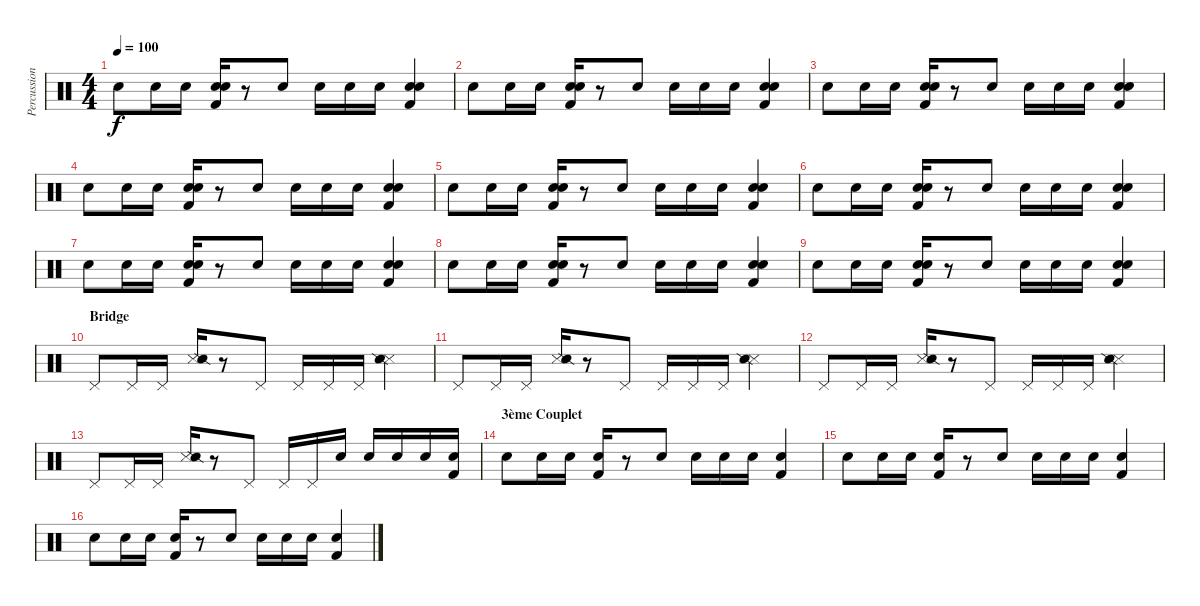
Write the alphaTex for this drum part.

\track ("Percussions" "Percussion") {instrument percussion}
\staff {score}
\articulation defaults
\ts (4 4)
\tempo 100
\clef neutral
\ks c "Electric Snare (hit)".8{dy f} "Electric Snare (hit)".16 "Electric Snare (hit)".16
("Snare (hit) 2" "Kick (hit) 2" "Electric Snare (hit)").16 r.8 "Electric Snare (hit)".8 "Electric Snare (hit)".16 "Electric Snare (hit)".16 "Electric Snare (hit)".16 ("Snare (hit) 2" "Kick (hit) 2" "Electric Snare (hit)").4 |
"Electric Snare (hit)".8 "Electric Snare (hit)".16 "Electric Snare (hit)".16 ("Snare (hit) 2" "Kick (hit) 2" "Electric Snare (hit)").16 r.8 "Electric Snare (hit)".8 "Electric Snare (hit)".16 "Electric Snare (hit)".16 "Electric Snare (hit)".16 ("Snare (hit) 2" "Kick (hit) 2" "Electric Snare (hit)").4 |
"Electric Snare (hit)".8 "Electric Snare (hit)".16 "Electric Snare (hit)".16 ("Snare (hit) 2" "Kick (hit) 2" "Electric Snare (hit)").16 r.8 "Electric Snare (hit)".8 "Electric Snare (hit)".16 "Electric Snare (hit)".16 "Electric Snare (hit)".16 ("Snare (hit) 2" "Kick (hit) 2" "Electric Snare (hit)").4 |
"Electric Snare (hit)".8 "Electric Snare (hit)".16 "Electric Snare (hit)".16 ("Snare (hit) 2" "Kick (hit) 2" "Electric Snare (hit)").16 r.8 "Electric Snare (hit)".8 "Electric Snare (hit)".16 "Electric Snare (hit)".16 "Electric Snare (hit)".16 ("Snare (hit) 2" "Kick (hit) 2" "Electric Snare (hit)").4 |
"Electric Snare (hit)".8 "Electric Snare (hit)".16 "Electric Snare (hit)".16 ("Snare (hit) 2" "Kick (hit) 2" "Electric Snare (hit)").16 r.8 "Electric Snare (hit)".8 "Electric Snare (hit)".16 "Electric Snare (hit)".16 "Electric Snare (hit)".16 ("Snare (hit) 2" "Kick (hit) 2" "Electric Snare (hit)").4 |
"Electric Snare (hit)".8 "Electric Snare (hit)".16 "Electric Snare (hit)".16 ("Snare (hit) 2" "Kick (hit) 2" "Electric Snare (hit)").16 r.8 "Electric Snare (hit)".8 "Electric Snare (hit)".16 "Electric Snare (hit)".16 "Electric Snare (hit)".16 ("Snare (hit) 2" "Kick (hit) 2" "Electric Snare (hit)").4 |
"Electric Snare (hit)".8 "Electric Snare (hit)".16 "Electric Snare (hit)".16 ("Snare (hit) 2" "Kick (hit) 2" "Electric Snare (hit)").16 r.8 "Electric Snare (hit)".8 "Electric Snare (hit)".16 "Electric Snare (hit)".16 "Electric Snare (hit)".16 ("Snare (hit) 2" "Kick (hit) 2" "Electric Snare (hit)").4 |
"Electric Snare (hit)".8 "Electric Snare (hit)".16 "Electric Snare (hit)".16 ("Snare (hit) 2" "Kick (hit) 2" "Electric Snare (hit)").16 r.8 "Electric Snare (hit)".8 "Electric Snare (hit)".16 "Electric Snare (hit)".16 "Electric Snare (hit)".16 ("Snare (hit) 2" "Kick (hit) 2" "Electric Snare (hit)").4 |
"Electric Snare (hit)".8 "Electric Snare (hit)".16 "Electric Snare (hit)".16 ("Snare (hit) 2" "Kick (hit) 2" "Electric Snare (hit)").16 r.8 "Electric Snare (hit)".8 "Electric Snare (hit)".16 "Electric Snare (hit)".16 "Electric Snare (hit)".16 ("Snare (hit) 2" "Kick (hit) 2" "Electric Snare (hit)").4 |
\section ("" "Bridge")
"Pedal Hi-Hat (hit)".8 "Pedal Hi-Hat (hit)".16 "Pedal Hi-Hat (hit)".16 ("Snare (side stick) 3" "Snare (side stick) 2").16 r.8 "Pedal Hi-Hat (hit)".8 "Pedal Hi-Hat (hit)".16 "Pedal Hi-Hat (hit)".16 "Pedal Hi-Hat (hit)".16 ("Snare (side stick) 3" "Snare (side stick) 2").4 |
"Pedal Hi-Hat (hit)".8 "Pedal Hi-Hat (hit)".16 "Pedal Hi-Hat (hit)".16 ("Snare (side stick) 3" "Snare (side stick) 2").16 r.8 "Pedal Hi-Hat (hit)".8 "Pedal Hi-Hat (hit)".16 "Pedal Hi-Hat (hit)".16 "Pedal Hi-Hat (hit)".16 ("Snare (side stick) 3" "Snare (side stick) 2").4 |
"Pedal Hi-Hat (hit)".8 "Pedal Hi-Hat (hit)".16 "Pedal Hi-Hat (hit)".16 ("Snare (side stick) 3" "Snare (side stick) 2").16 r.8 "Pedal Hi-Hat (hit)".8 "Pedal Hi-Hat (hit)".16 "Pedal Hi-Hat (hit)".16 "Pedal Hi-Hat (hit)".16 ("Snare (side stick) 3" "Snare (side stick) 2").4 |
"Pedal Hi-Hat (hit)".8 "Pedal Hi-Hat (hit)".16 "Pedal Hi-Hat (hit)".16 ("Snare (side stick) 3" "Snare (side stick) 2").16 r.8 "Pedal Hi-Hat (hit)".8 "Pedal Hi-Hat (hit)".16 "Pedal Hi-Hat (hit)".16 "Electric Snare (hit)".16 "Electric Snare (hit)".16 "Electric Snare (hit)".16 "Electric Snare (hit)".16 ("Snare (hit) 2" "Kick (hit) 2").16 |
\section ("" "3ème Couplet")
"Electric Snare (hit)".8 "Electric Snare (hit)".16 "Electric Snare (hit)".16 ("Snare (hit) 2" "Kick (hit) 2").16 r.8 "Electric Snare (hit)".8 "Electric Snare (hit)".16 "Electric Snare (hit)".16 "Electric Snare (hit)".16 ("Snare (hit) 2" "Kick (hit) 2").4 |
"Electric Snare (hit)".8 "Electric Snare (hit)".16 "Electric Snare (hit)".16 ("Snare (hit) 2" "Kick (hit) 2").16 r.8 "Electric Snare (hit)".8 "Electric Snare (hit)".16 "Electric Snare (hit)".16 "Electric Snare (hit)".16 ("Snare (hit) 2" "Kick (hit) 2").4 |
"Electric Snare (hit)".8 "Electric Snare (hit)".16 "Electric Snare (hit)".16 ("Snare (hit) 2" "Kick (hit) 2").16 r.8 "Electric Snare (hit)".8 "Electric Snare (hit)".16 "Electric Snare (hit)".16 "Electric Snare (hit)".16 ("Snare (hit) 2" "Kick (hit) 2").4
